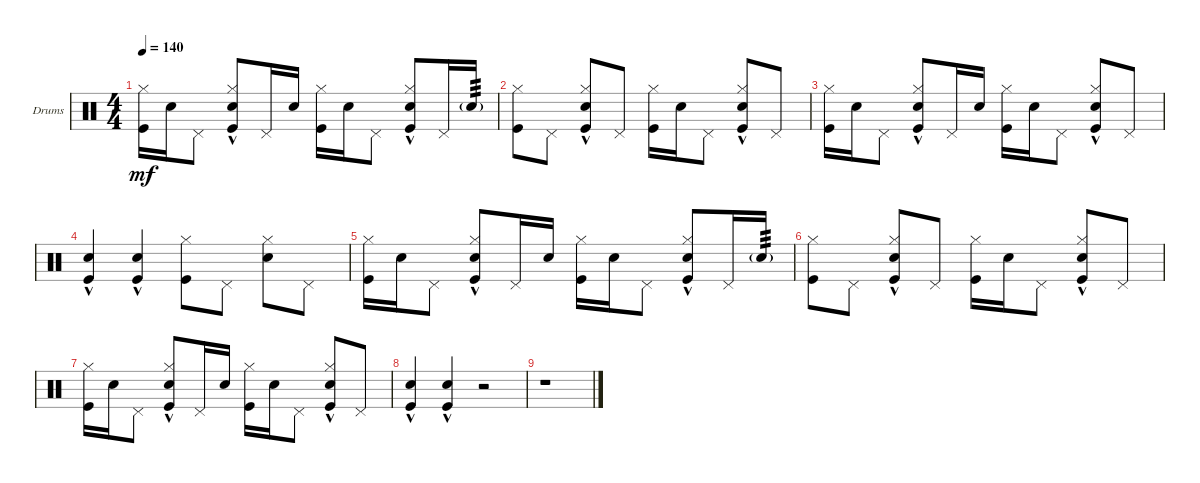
\defaultSystemsLayout 4
\bracketExtendMode groupsimilarinstruments
\firstSystemTrackNameOrientation horizontal
\otherSystemsTrackNameOrientation horizontal
\track ("Drumkit" "Drums") {instrument percussion}
\staff {score}
\articulation defaults
\ts (4 4)
\tempo 140
\clef neutral
\ks c
("Kick (hit)" "Hi-Hat (closed)").16{dy mf} "Snare (hit) 2".16 "Pedal Hi-Hat (hit)".8 ("Hi-Hat (closed)" "Kick (hit)" "Snare (hit) 2"{hac}).8 "Pedal Hi-Hat (hit)".16 "Snare (hit) 2".16 ("Kick (hit)" "Hi-Hat (closed)").16 "Snare (hit) 2".16 "Pedal Hi-Hat (hit)".8 ("Hi-Hat (closed)" "Kick (hit)" "Snare (hit) 2"{hac}).8 "Pedal Hi-Hat (hit)".16 "Snare (hit) 2"{g}.16{tp 3} |
("Kick (hit)" "Hi-Hat (closed)").8 "Pedal Hi-Hat (hit)".8 ("Hi-Hat (closed)" "Kick (hit)" "Snare (hit) 2"{hac}).8 "Pedal Hi-Hat (hit)".8 ("Kick (hit)" "Hi-Hat (closed)").16 "Snare (hit) 2".16 "Pedal Hi-Hat (hit)".8 ("Hi-Hat (closed)" "Kick (hit)" "Snare (hit) 2"{hac}).8 "Pedal Hi-Hat (hit)".8 |
("Kick (hit)" "Hi-Hat (closed)").16 "Snare (hit) 2".16 "Pedal Hi-Hat (hit)".8 ("Hi-Hat (closed)" "Kick (hit)" "Snare (hit) 2"{hac}).8 "Pedal Hi-Hat (hit)".16 "Snare (hit) 2".16 ("Kick (hit)" "Hi-Hat (closed)").16 "Snare (hit) 2".16 "Pedal Hi-Hat (hit)".8 ("Hi-Hat (closed)" "Kick (hit)" "Snare (hit) 2"{hac}).8 "Pedal Hi-Hat (hit)".8 |
("Kick (hit)" "Snare (hit) 2"{hac}).4 ("Kick (hit)" "Snare (hit) 2"{hac}).4 ("Hi-Hat (closed)" "Kick (hit)").8 "Pedal Hi-Hat (hit)".8 ("Hi-Hat (closed)" "Snare (hit) 2").8 "Pedal Hi-Hat (hit)".8 |
("Kick (hit)" "Hi-Hat (closed)").16 "Snare (hit) 2".16 "Pedal Hi-Hat (hit)".8 ("Hi-Hat (closed)" "Kick (hit)" "Snare (hit) 2"{hac}).8 "Pedal Hi-Hat (hit)".16 "Snare (hit) 2".16 ("Kick (hit)" "Hi-Hat (closed)").16 "Snare (hit) 2".16 "Pedal Hi-Hat (hit)".8 ("Hi-Hat (closed)" "Kick (hit)" "Snare (hit) 2"{hac}).8 "Pedal Hi-Hat (hit)".16 "Snare (hit) 2"{g}.16{tp 3} |
("Kick (hit)" "Hi-Hat (closed)").8 "Pedal Hi-Hat (hit)".8 ("Hi-Hat (closed)" "Kick (hit)" "Snare (hit) 2"{hac}).8 "Pedal Hi-Hat (hit)".8 ("Kick (hit)" "Hi-Hat (closed)").16 "Snare (hit) 2".16 "Pedal Hi-Hat (hit)".8 ("Hi-Hat (closed)" "Kick (hit)" "Snare (hit) 2"{hac}).8 "Pedal Hi-Hat (hit)".8 |
("Kick (hit)" "Hi-Hat (closed)").16 "Snare (hit) 2".16 "Pedal Hi-Hat (hit)".8 ("Hi-Hat (closed)" "Kick (hit)" "Snare (hit) 2"{hac}).8 "Pedal Hi-Hat (hit)".16 "Snare (hit) 2".16 ("Kick (hit)" "Hi-Hat (closed)").16 "Snare (hit) 2".16 "Pedal Hi-Hat (hit)".8 ("Hi-Hat (closed)" "Kick (hit)" "Snare (hit) 2"{hac}).8 "Pedal Hi-Hat (hit)".8 |
("Kick (hit)" "Snare (hit) 2"{hac}).4 ("Kick (hit)" "Snare (hit) 2"{hac}).4 r.2 |
r.1
